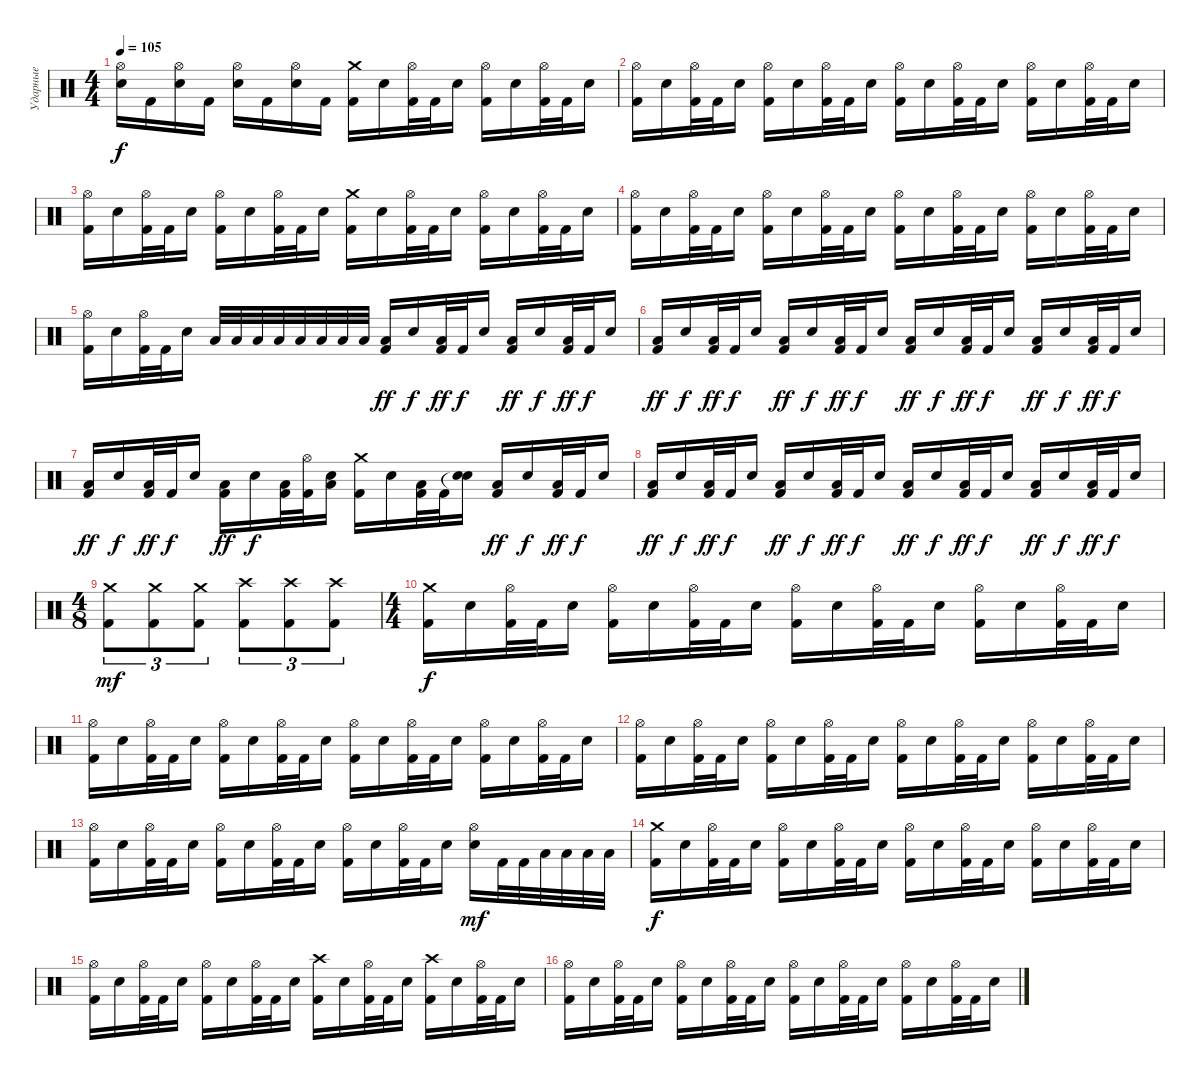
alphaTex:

\track ("Ударные" "Ударные") {instrument percussion}
\staff {score}
\articulation defaults
\ts (4 4)
\tempo 105
\clef neutral
\ks c
("Hi-Hat (open)" "Snare (hit) 2").16{dy f} "Kick (hit) 2".16 ("Hi-Hat (open)" "Snare (hit) 2").16 "Kick (hit) 2".16 ("Hi-Hat (open)" "Snare (hit) 2").16 "Kick (hit) 2".16 ("Hi-Hat (open)" "Snare (hit) 2").16 "Kick (hit) 2".16 ("Crash medium (hit)" "Kick (hit) 2").16 "Snare (hit) 2".16 ("Hi-Hat (open)" "Kick (hit) 2").32 "Kick (hit) 2".32 "Snare (hit) 2".16 ("Hi-Hat (open)" "Kick (hit) 2").16 "Snare (hit) 2".16 ("Hi-Hat (open)" "Kick (hit) 2").32 "Kick (hit) 2".32 "Snare (hit) 2".16 |
("Hi-Hat (open)" "Kick (hit) 2").16 "Snare (hit) 2".16 ("Hi-Hat (open)" "Kick (hit) 2").32 "Kick (hit) 2".32 "Snare (hit) 2".16 ("Hi-Hat (open)" "Kick (hit) 2").16 "Snare (hit) 2".16 ("Hi-Hat (open)" "Kick (hit) 2").32 "Kick (hit) 2".32 "Snare (hit) 2".16 ("Hi-Hat (open)" "Kick (hit) 2").16 "Snare (hit) 2".16 ("Hi-Hat (open)" "Kick (hit) 2").32 "Kick (hit) 2".32 "Snare (hit) 2".16 ("Hi-Hat (open)" "Kick (hit) 2").16 "Snare (hit) 2".16 ("Hi-Hat (open)" "Kick (hit) 2").32 "Kick (hit) 2".32 "Snare (hit) 2".16 |
("Hi-Hat (open)" "Kick (hit) 2").16 "Snare (hit) 2".16 ("Hi-Hat (open)" "Kick (hit) 2").32 "Kick (hit) 2".32 "Snare (hit) 2".16 ("Hi-Hat (open)" "Kick (hit) 2").16 "Snare (hit) 2".16 ("Hi-Hat (open)" "Kick (hit) 2").32 "Kick (hit) 2".32 "Snare (hit) 2".16 ("Crash medium (hit)" "Kick (hit) 2").16 "Snare (hit) 2".16 ("Hi-Hat (open)" "Kick (hit) 2").32 "Kick (hit) 2".32 "Snare (hit) 2".16 ("Hi-Hat (open)" "Kick (hit) 2").16 "Snare (hit) 2".16 ("Hi-Hat (open)" "Kick (hit) 2").32 "Kick (hit) 2".32 "Snare (hit) 2".16 |
("Hi-Hat (open)" "Kick (hit) 2").16 "Snare (hit) 2".16 ("Hi-Hat (open)" "Kick (hit) 2").32 "Kick (hit) 2".32 "Snare (hit) 2".16 ("Hi-Hat (open)" "Kick (hit) 2").16 "Snare (hit) 2".16 ("Hi-Hat (open)" "Kick (hit) 2").32 "Kick (hit) 2".32 "Snare (hit) 2".16 ("Hi-Hat (open)" "Kick (hit) 2").16 "Snare (hit) 2".16 ("Hi-Hat (open)" "Kick (hit) 2").32 "Kick (hit) 2".32 "Snare (hit) 2".16 ("Hi-Hat (open)" "Kick (hit) 2").16 "Snare (hit) 2".16 ("Hi-Hat (open)" "Kick (hit) 2").32 "Kick (hit) 2".32 "Snare (hit) 2".16 |
("Hi-Hat (open)" "Kick (hit) 2").16 "Snare (hit) 2".16 ("Hi-Hat (open)" "Kick (hit) 2").32 "Kick (hit) 2".32 "Snare (hit) 2".16 "Low Tom (hit)".32 "Low Tom (hit)".32 "Low Tom (hit)".32 "Low Tom (hit)".32 "Low Floor Tom (hit)".32 "Low Floor Tom (hit)".32 "Low Floor Tom (hit)".32 "Low Floor Tom (hit)".32 ("Low Floor Tom (hit)" "Kick (hit) 2").16{dy ff} "Snare (hit) 2".16{dy f} ("Low Floor Tom (hit)" "Kick (hit) 2").32{dy ff} "Kick (hit) 2".32{dy f} "Snare (hit) 2".16 ("Low Floor Tom (hit)" "Kick (hit) 2").16{dy ff} "Snare (hit) 2".16{dy f} ("Low Floor Tom (hit)" "Kick (hit) 2").32{dy ff} "Kick (hit) 2".32{dy f} "Snare (hit) 2".16 |
("Low Floor Tom (hit)" "Kick (hit) 2").16{dy ff} "Snare (hit) 2".16{dy f} ("Low Floor Tom (hit)" "Kick (hit) 2").32{dy ff} "Kick (hit) 2".32{dy f} "Snare (hit) 2".16 ("Low Floor Tom (hit)" "Kick (hit) 2").16{dy ff} "Snare (hit) 2".16{dy f} ("Low Floor Tom (hit)" "Kick (hit) 2").32{dy ff} "Kick (hit) 2".32{dy f} "Snare (hit) 2".16 ("Low Floor Tom (hit)" "Kick (hit) 2").16{dy ff} "Snare (hit) 2".16{dy f} ("Low Floor Tom (hit)" "Kick (hit) 2").32{dy ff} "Kick (hit) 2".32{dy f} "Snare (hit) 2".16 ("Low Floor Tom (hit)" "Kick (hit) 2").16{dy ff} "Snare (hit) 2".16{dy f} ("Low Floor Tom (hit)" "Kick (hit) 2").32{dy ff} "Kick (hit) 2".32{dy f} "Snare (hit) 2".16 |
("Low Floor Tom (hit)" "Kick (hit) 2").16{dy ff} "Snare (hit) 2".16{dy f} ("Low Floor Tom (hit)" "Kick (hit) 2").32{dy ff} "Kick (hit) 2".32{dy f} "Snare (hit) 2".16 ("Low Floor Tom (hit)" "Kick (hit) 2").16{dy ff} "Snare (hit) 2".16{dy f} ("Low Floor Tom (hit)" "Kick (hit) 2").32 ("Hi-Hat (open)" "Kick (hit) 2").32 ("Low Floor Tom (hit)" "Snare (hit) 2").16 ("Crash medium (hit)" "Kick (hit) 2").16 "Snare (hit) 2".16 ("Low Floor Tom (hit)" "Kick (hit) 2").32 "Kick (hit) 2".32 ("Snare (hit)"{t} "Snare (hit) 2").16 ("Low Floor Tom (hit)" "Kick (hit) 2").16{dy ff} "Snare (hit) 2".16{dy f} ("Low Floor Tom (hit)" "Kick (hit) 2").32{dy ff} "Kick (hit) 2".32{dy f} "Snare (hit) 2".16 |
("Low Floor Tom (hit)" "Kick (hit) 2").16{dy ff} "Snare (hit) 2".16{dy f} ("Low Floor Tom (hit)" "Kick (hit) 2").32{dy ff} "Kick (hit) 2".32{dy f} "Snare (hit) 2".16 ("Low Floor Tom (hit)" "Kick (hit) 2").16{dy ff} "Snare (hit) 2".16{dy f} ("Low Floor Tom (hit)" "Kick (hit) 2").32{dy ff} "Kick (hit) 2".32{dy f} "Snare (hit) 2".16 ("Low Floor Tom (hit)" "Kick (hit) 2").16{dy ff} "Snare (hit) 2".16{dy f} ("Low Floor Tom (hit)" "Kick (hit) 2").32{dy ff} "Kick (hit) 2".32{dy f} "Snare (hit) 2".16 ("Low Floor Tom (hit)" "Kick (hit) 2").16{dy ff} "Snare (hit) 2".16{dy f} ("Low Floor Tom (hit)" "Kick (hit) 2").32{dy ff} "Kick (hit) 2".32{dy f} "Snare (hit) 2".16 |
\ts (4 8)
("Crash medium (hit)" "Kick (hit) 2").8{tu (3 2) dy mf} ("Crash medium (hit)" "Kick (hit) 2").8{tu (3 2)} ("Crash medium (hit)" "Kick (hit) 2").8{tu (3 2)} ("Crash high (hit)" "Kick (hit) 2").8{tu (3 2)} ("Crash high (hit)" "Kick (hit) 2").8{tu (3 2)} ("Crash high (hit)" "Kick (hit) 2").8{tu (3 2)} |
\ts (4 4)
("Crash medium (hit)" "Kick (hit) 2").16{dy f} "Snare (hit) 2".16 ("Hi-Hat (open)" "Kick (hit) 2").32 "Kick (hit) 2".32 "Snare (hit) 2".16 ("Hi-Hat (open)" "Kick (hit) 2").16 "Snare (hit) 2".16 ("Hi-Hat (open)" "Kick (hit) 2").32 "Kick (hit) 2".32 "Snare (hit) 2".16 ("Hi-Hat (open)" "Kick (hit) 2").16 "Snare (hit) 2".16 ("Hi-Hat (open)" "Kick (hit) 2").32 "Kick (hit) 2".32 "Snare (hit) 2".16 ("Hi-Hat (open)" "Kick (hit) 2").16 "Snare (hit) 2".16 ("Hi-Hat (open)" "Kick (hit) 2").32 "Kick (hit) 2".32 "Snare (hit) 2".16 |
("Hi-Hat (open)" "Kick (hit) 2").16 "Snare (hit) 2".16 ("Hi-Hat (open)" "Kick (hit) 2").32 "Kick (hit) 2".32 "Snare (hit) 2".16 ("Hi-Hat (open)" "Kick (hit) 2").16 "Snare (hit) 2".16 ("Hi-Hat (open)" "Kick (hit) 2").32 "Kick (hit) 2".32 "Snare (hit) 2".16 ("Hi-Hat (open)" "Kick (hit) 2").16 "Snare (hit) 2".16 ("Hi-Hat (open)" "Kick (hit) 2").32 "Kick (hit) 2".32 "Snare (hit) 2".16 ("Hi-Hat (open)" "Kick (hit) 2").16 "Snare (hit) 2".16 ("Hi-Hat (open)" "Kick (hit) 2").32 "Kick (hit) 2".32 "Snare (hit) 2".16 |
("Hi-Hat (open)" "Kick (hit) 2").16 "Snare (hit) 2".16 ("Hi-Hat (open)" "Kick (hit) 2").32 "Kick (hit) 2".32 "Snare (hit) 2".16 ("Hi-Hat (open)" "Kick (hit) 2").16 "Snare (hit) 2".16 ("Hi-Hat (open)" "Kick (hit) 2").32 "Kick (hit) 2".32 "Snare (hit) 2".16 ("Hi-Hat (open)" "Kick (hit) 2").16 "Snare (hit) 2".16 ("Hi-Hat (open)" "Kick (hit) 2").32 "Kick (hit) 2".32 "Snare (hit) 2".16 ("Hi-Hat (open)" "Kick (hit) 2").16 "Snare (hit) 2".16 ("Hi-Hat (open)" "Kick (hit) 2").32 "Kick (hit) 2".32 "Snare (hit) 2".16 |
("Hi-Hat (open)" "Kick (hit) 2").16 "Snare (hit) 2".16 ("Hi-Hat (open)" "Kick (hit) 2").32 "Kick (hit) 2".32 "Snare (hit) 2".16 ("Hi-Hat (open)" "Kick (hit) 2").16 "Snare (hit) 2".16 ("Hi-Hat (open)" "Kick (hit) 2").32 "Kick (hit) 2".32 "Snare (hit) 2".16 ("Hi-Hat (open)" "Kick (hit) 2").16 "Snare (hit) 2".16 ("Hi-Hat (open)" "Kick (hit) 2").32 "Kick (hit) 2".32 "Snare (hit) 2".16 ("Hi-Hat (open)" "Snare (hit) 2").16{dy mf} "Kick (hit) 2".32 "Kick (hit) 2".32 "Low Tom (hit)".32 "Low Tom (hit)".32 "Low Floor Tom (hit)".32 "Low Floor Tom (hit)".32 |
("Crash medium (hit)" "Kick (hit) 2").16{dy f} "Snare (hit) 2".16 ("Hi-Hat (open)" "Kick (hit) 2").32 "Kick (hit) 2".32 "Snare (hit) 2".16 ("Hi-Hat (open)" "Kick (hit) 2").16 "Snare (hit) 2".16 ("Hi-Hat (open)" "Kick (hit) 2").32 "Kick (hit) 2".32 "Snare (hit) 2".16 ("Hi-Hat (open)" "Kick (hit) 2").16 "Snare (hit) 2".16 ("Hi-Hat (open)" "Kick (hit) 2").32 "Kick (hit) 2".32 "Snare (hit) 2".16 ("Hi-Hat (open)" "Kick (hit) 2").16 "Snare (hit) 2".16 ("Hi-Hat (open)" "Kick (hit) 2").32 "Kick (hit) 2".32 "Snare (hit) 2".16 |
("Hi-Hat (open)" "Kick (hit) 2").16 "Snare (hit) 2".16 ("Hi-Hat (open)" "Kick (hit) 2").32 "Kick (hit) 2".32 "Snare (hit) 2".16 ("Hi-Hat (open)" "Kick (hit) 2").16 "Snare (hit) 2".16 ("Hi-Hat (open)" "Kick (hit) 2").32 "Kick (hit) 2".32 "Snare (hit) 2".16 ("Crash high (hit)" "Kick (hit) 2").16 "Snare (hit) 2".16 ("Hi-Hat (open)" "Kick (hit) 2").32 "Kick (hit) 2".32 "Snare (hit) 2".16 ("Crash high (hit)" "Kick (hit) 2").16 "Snare (hit) 2".16 ("Hi-Hat (open)" "Kick (hit) 2").32 "Kick (hit) 2".32 "Snare (hit) 2".16 |
("Hi-Hat (open)" "Kick (hit) 2").16 "Snare (hit) 2".16 ("Hi-Hat (open)" "Kick (hit) 2").32 "Kick (hit) 2".32 "Snare (hit) 2".16 ("Hi-Hat (open)" "Kick (hit) 2").16 "Snare (hit) 2".16 ("Hi-Hat (open)" "Kick (hit) 2").32 "Kick (hit) 2".32 "Snare (hit) 2".16 ("Hi-Hat (open)" "Kick (hit) 2").16 "Snare (hit) 2".16 ("Hi-Hat (open)" "Kick (hit) 2").32 "Kick (hit) 2".32 "Snare (hit) 2".16 ("Hi-Hat (open)" "Kick (hit) 2").16 "Snare (hit) 2".16 ("Hi-Hat (open)" "Kick (hit) 2").32 "Kick (hit) 2".32 "Snare (hit) 2".16
